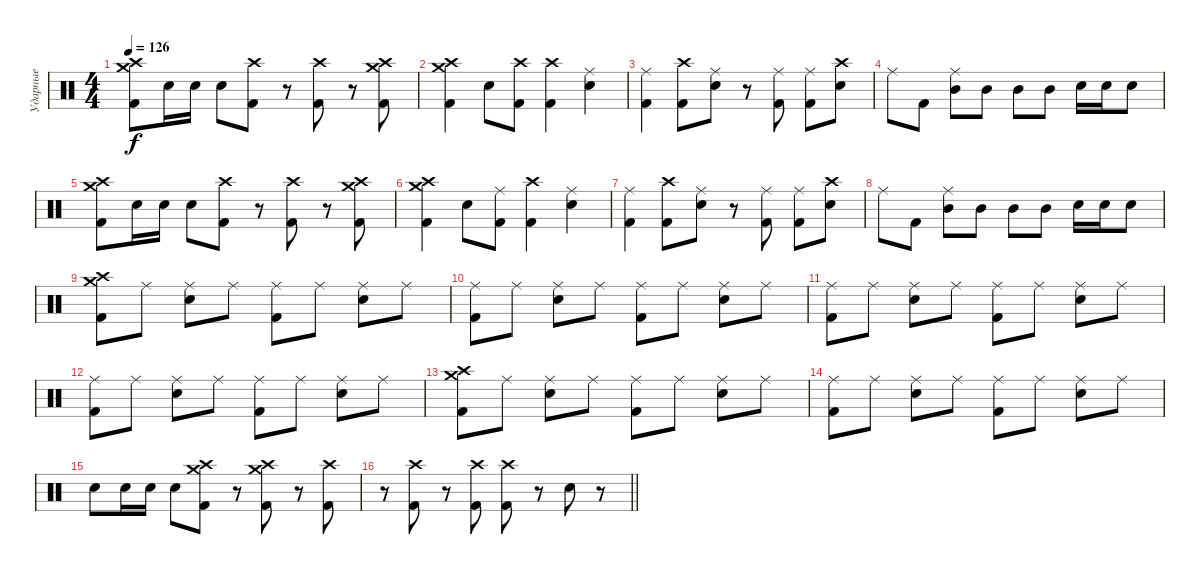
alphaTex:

\track ("Ударные" "Ударные") {instrument percussion}
\staff {score}
\articulation defaults
\ts (4 4)
\tempo 126
\clef neutral
\ks c
("Kick (hit) 2" "Crash high (hit)" "Crash medium (hit)").8{dy f} "Snare (hit) 2".16 "Electric Snare (hit)".16 "Snare (hit) 2".8 ("Kick (hit) 2" "Crash high (hit)").8 r.8 ("Kick (hit) 2" "Crash high (hit)").8 r.8 ("Kick (hit) 2" "Crash medium (hit)" "Crash high (hit)").8 |
("Kick (hit) 2" "Crash high (hit)" "Crash medium (hit)").4 "Snare (hit) 2".8 ("Kick (hit) 2" "Crash high (hit)").8 ("Kick (hit) 2" "Crash high (hit)").4 ("Snare (hit) 2" "Ride (middle)").4 |
("Kick (hit) 2" "Ride (middle)").4 ("Kick (hit) 2" "Crash high (hit)").8 ("Snare (hit) 2" "Ride (middle)").8 r.8 ("Kick (hit) 2" "Ride (middle)").8 ("Kick (hit) 2" "Ride (middle)").8 ("Snare (hit) 2" "Crash high (hit)").8 |
"Ride (middle)".8 "Kick (hit) 2".8 ("Mid Tom (hit)" "Ride (middle)").8 "Mid Tom (hit)".8 "Mid Tom (hit)".8 "Mid Tom (hit)".8 "Electric Snare (hit)".16 "Electric Snare (hit)".16 "Electric Snare (hit)".8 |
("Kick (hit) 2" "Crash high (hit)" "Crash medium (hit)").8 "Snare (hit) 2".16 "Electric Snare (hit)".16 "Snare (hit) 2".8 ("Kick (hit) 2" "Crash high (hit)").8 r.8 ("Kick (hit) 2" "Crash high (hit)").8 r.8 ("Kick (hit) 2" "Crash medium (hit)" "Crash high (hit)").8 |
("Kick (hit) 2" "Crash high (hit)" "Crash medium (hit)").4 "Snare (hit) 2".8 ("Kick (hit) 2" "Ride (middle)").8 ("Kick (hit) 2" "Crash high (hit)").4 ("Snare (hit) 2" "Ride (middle)").4 |
("Kick (hit) 2" "Ride (middle)").4 ("Kick (hit) 2" "Crash high (hit)").8 ("Snare (hit) 2" "Ride (middle)").8 r.8 ("Kick (hit) 2" "Ride (middle)").8 ("Kick (hit) 2" "Ride (middle)").8 ("Snare (hit) 2" "Crash high (hit)").8 |
"Ride (middle)".8 "Kick (hit) 2".8 ("Mid Tom (hit)" "Ride (middle)").8 "Mid Tom (hit)".8 "Mid Tom (hit)".8 "Mid Tom (hit)".8 "Electric Snare (hit)".16 "Electric Snare (hit)".16 "Electric Snare (hit)".8 |
("Kick (hit) 2" "Crash high (hit)" "Crash medium (hit)").8 "Ride (middle)".8 ("Snare (hit) 2" "Ride (middle)").8 "Ride (middle)".8 ("Kick (hit) 2" "Ride (middle)").8 "Ride (middle)".8 ("Snare (hit) 2" "Ride (middle)").8 "Ride (middle)".8 |
("Kick (hit) 2" "Ride (middle)").8 "Ride (middle)".8 ("Snare (hit) 2" "Ride (middle)").8 "Ride (middle)".8 ("Kick (hit) 2" "Ride (middle)").8 "Ride (middle)".8 ("Snare (hit) 2" "Ride (middle)").8 "Ride (middle)".8 |
("Kick (hit) 2" "Ride (middle)").8 "Ride (middle)".8 ("Snare (hit) 2" "Ride (middle)").8 "Ride (middle)".8 ("Kick (hit) 2" "Ride (middle)").8 "Ride (middle)".8 ("Snare (hit) 2" "Ride (middle)").8 "Ride (middle)".8 |
("Kick (hit) 2" "Ride (middle)").8 "Ride (middle)".8 ("Snare (hit) 2" "Ride (middle)").8 "Ride (middle)".8 ("Kick (hit) 2" "Ride (middle)").8 "Ride (middle)".8 ("Snare (hit) 2" "Ride (middle)").8 "Ride (middle)".8 |
("Kick (hit) 2" "Crash high (hit)" "Crash medium (hit)").8 "Ride (middle)".8 ("Snare (hit) 2" "Ride (middle)").8 "Ride (middle)".8 ("Kick (hit) 2" "Ride (middle)").8 "Ride (middle)".8 ("Snare (hit) 2" "Ride (middle)").8 "Ride (middle)".8 |
("Kick (hit) 2" "Ride (middle)").8 "Ride (middle)".8 ("Snare (hit) 2" "Ride (middle)").8 "Ride (middle)".8 ("Kick (hit) 2" "Ride (middle)").8 "Ride (middle)".8 ("Snare (hit) 2" "Ride (middle)").8 "Ride (middle)".8 |
"Snare (hit) 2".8 "Snare (hit) 2".16 "Snare (hit) 2".16 "Snare (hit) 2".8 ("Kick (hit) 2" "Crash high (hit)" "Crash medium (hit)").8 r.8 ("Kick (hit) 2" "Crash medium (hit)" "Crash high (hit)").8 r.8 ("Kick (hit) 2" "Crash high (hit)").8 |
\barLineRight lightlight
r.8 ("Kick (hit) 2" "Crash high (hit)").8 r.8 ("Kick (hit) 2" "Crash high (hit)").8 ("Kick (hit) 2" "Crash high (hit)").8 r.8 "Snare (hit) 2".8 r.8
